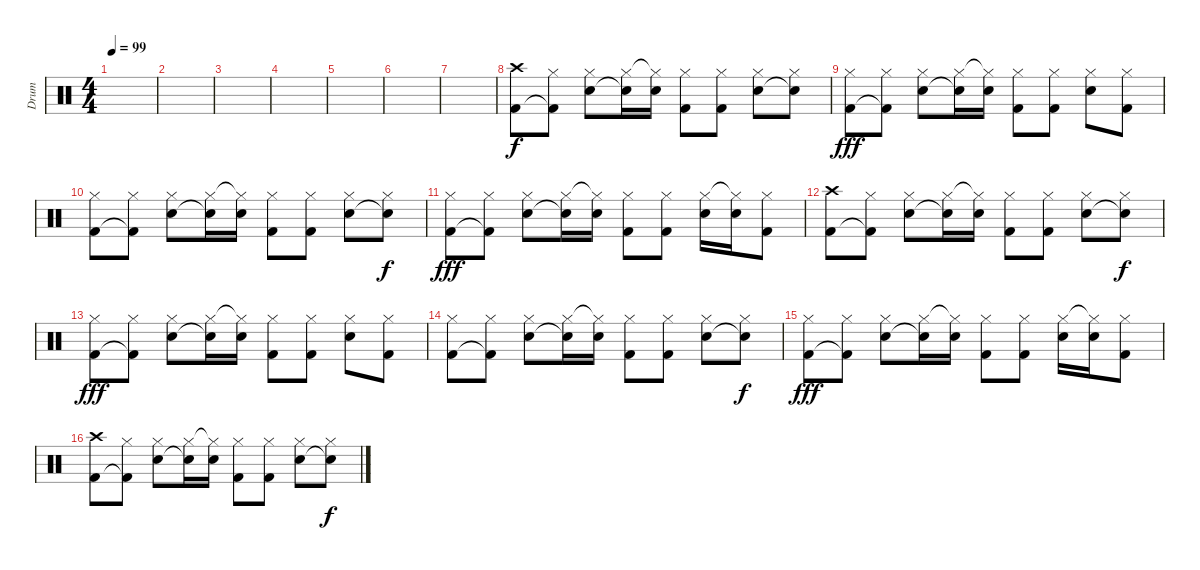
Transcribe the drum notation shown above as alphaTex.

\track ("Drum" "Drum") {instrument percussion}
\staff {score}
\articulation defaults
\ts (4 4)
\tempo 99
\clef neutral
\ks c
|
|
|
|
|
|
|
("Crash high (hit)" "Kick (hit) 2").8 ("Hi-Hat (closed)" "Kick (hit) 2"{t}).8 ("Hi-Hat (closed)" "Electric Snare (hit)").8 ("Hi-Hat (closed)" "Electric Snare (hit)"{t}).16 ("Hi-Hat (closed)"{t} "Electric Snare (hit)").16 ("Hi-Hat (closed)" "Kick (hit) 2").8 ("Hi-Hat (closed)" "Kick (hit) 2").8 ("Hi-Hat (closed)" "Electric Snare (hit)").8 ("Hi-Hat (closed)" "Electric Snare (hit)"{t}).8{dy f} |
("Hi-Hat (closed)" "Kick (hit) 2").8{dy fff} ("Hi-Hat (closed)" "Kick (hit) 2"{t}).8 ("Hi-Hat (closed)" "Electric Snare (hit)").8 ("Hi-Hat (closed)" "Electric Snare (hit)"{t}).16 ("Hi-Hat (closed)"{t} "Electric Snare (hit)").16 ("Hi-Hat (closed)" "Kick (hit) 2").8 ("Hi-Hat (closed)" "Kick (hit) 2").8 ("Hi-Hat (closed)" "Electric Snare (hit)").8 ("Hi-Hat (closed)" "Kick (hit) 2").8 |
("Hi-Hat (closed)" "Kick (hit) 2").8 ("Hi-Hat (closed)" "Kick (hit) 2"{t}).8 ("Hi-Hat (closed)" "Electric Snare (hit)").8 ("Hi-Hat (closed)" "Electric Snare (hit)"{t}).16 ("Hi-Hat (closed)"{t} "Electric Snare (hit)").16 ("Hi-Hat (closed)" "Kick (hit) 2").8 ("Hi-Hat (closed)" "Kick (hit) 2").8 ("Hi-Hat (closed)" "Electric Snare (hit)").8 ("Hi-Hat (closed)" "Electric Snare (hit)"{t}).8{dy f} |
("Hi-Hat (closed)" "Kick (hit) 2").8{dy fff} ("Hi-Hat (closed)" "Kick (hit) 2"{t}).8 ("Hi-Hat (closed)" "Electric Snare (hit)").8 ("Hi-Hat (closed)" "Electric Snare (hit)"{t}).16 ("Hi-Hat (closed)"{t} "Electric Snare (hit)").16 ("Hi-Hat (closed)" "Kick (hit) 2").8 ("Hi-Hat (closed)" "Kick (hit) 2").8 ("Hi-Hat (closed)" "Electric Snare (hit)").16 ("Hi-Hat (closed)"{t} "Electric Snare (hit)").16 ("Hi-Hat (closed)" "Kick (hit) 2").8 |
("Crash high (hit)" "Kick (hit) 2").8 ("Hi-Hat (closed)" "Kick (hit) 2"{t}).8 ("Hi-Hat (closed)" "Electric Snare (hit)").8 ("Hi-Hat (closed)" "Electric Snare (hit)"{t}).16 ("Hi-Hat (closed)"{t} "Electric Snare (hit)").16 ("Hi-Hat (closed)" "Kick (hit) 2").8 ("Hi-Hat (closed)" "Kick (hit) 2").8 ("Hi-Hat (closed)" "Electric Snare (hit)").8 ("Hi-Hat (closed)" "Electric Snare (hit)"{t}).8{dy f} |
("Hi-Hat (closed)" "Kick (hit) 2").8{dy fff} ("Hi-Hat (closed)" "Kick (hit) 2"{t}).8 ("Hi-Hat (closed)" "Electric Snare (hit)").8 ("Hi-Hat (closed)" "Electric Snare (hit)"{t}).16 ("Hi-Hat (closed)"{t} "Electric Snare (hit)").16 ("Hi-Hat (closed)" "Kick (hit) 2").8 ("Hi-Hat (closed)" "Kick (hit) 2").8 ("Hi-Hat (closed)" "Electric Snare (hit)").8 ("Hi-Hat (closed)" "Kick (hit) 2").8 |
("Hi-Hat (closed)" "Kick (hit) 2").8 ("Hi-Hat (closed)" "Kick (hit) 2"{t}).8 ("Hi-Hat (closed)" "Electric Snare (hit)").8 ("Hi-Hat (closed)" "Electric Snare (hit)"{t}).16 ("Hi-Hat (closed)"{t} "Electric Snare (hit)").16 ("Hi-Hat (closed)" "Kick (hit) 2").8 ("Hi-Hat (closed)" "Kick (hit) 2").8 ("Hi-Hat (closed)" "Electric Snare (hit)").8 ("Hi-Hat (closed)" "Electric Snare (hit)"{t}).8{dy f} |
("Hi-Hat (closed)" "Kick (hit) 2").8{dy fff} ("Hi-Hat (closed)" "Kick (hit) 2"{t}).8 ("Hi-Hat (closed)" "Electric Snare (hit)").8 ("Hi-Hat (closed)" "Electric Snare (hit)"{t}).16 ("Hi-Hat (closed)"{t} "Electric Snare (hit)").16 ("Hi-Hat (closed)" "Kick (hit) 2").8 ("Hi-Hat (closed)" "Kick (hit) 2").8 ("Hi-Hat (closed)" "Electric Snare (hit)").16 ("Hi-Hat (closed)"{t} "Electric Snare (hit)").16 ("Hi-Hat (closed)" "Kick (hit) 2").8 |
("Crash high (hit)" "Kick (hit) 2").8 ("Hi-Hat (closed)" "Kick (hit) 2"{t}).8 ("Hi-Hat (closed)" "Electric Snare (hit)").8 ("Hi-Hat (closed)" "Electric Snare (hit)"{t}).16 ("Hi-Hat (closed)"{t} "Electric Snare (hit)").16 ("Hi-Hat (closed)" "Kick (hit) 2").8 ("Hi-Hat (closed)" "Kick (hit) 2").8 ("Hi-Hat (closed)" "Electric Snare (hit)").8 ("Hi-Hat (closed)" "Electric Snare (hit)"{t}).8{dy f}
